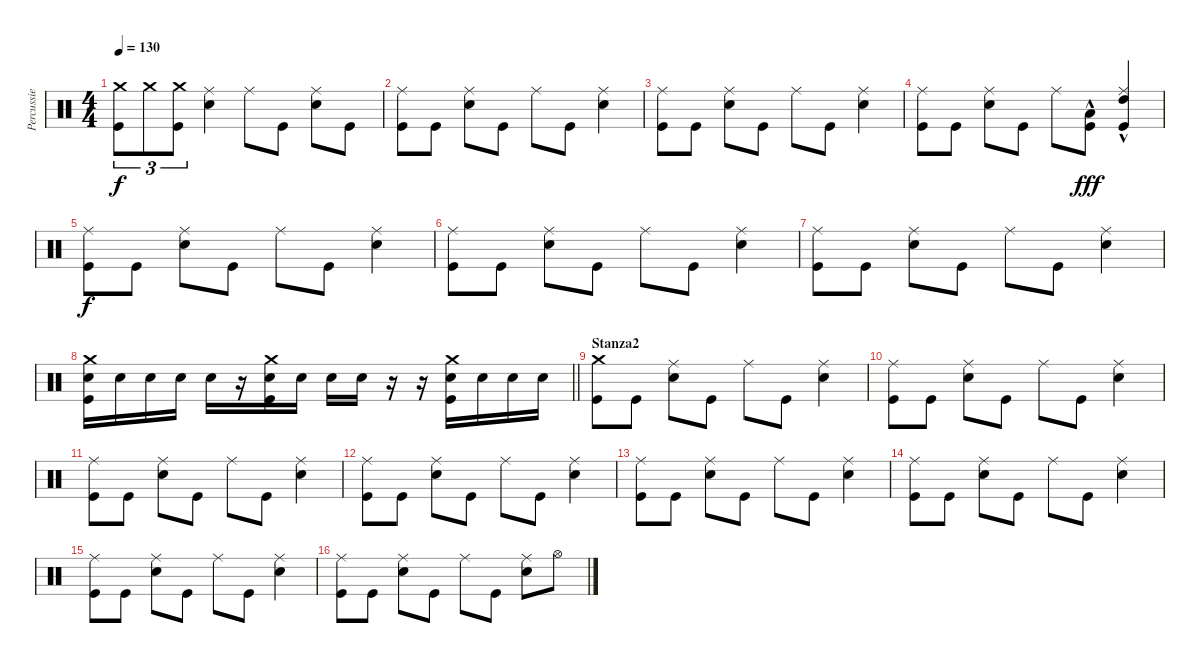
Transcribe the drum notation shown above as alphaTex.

\track ("Percussie" "Percussie") {instrument percussion}
\staff {score}
\articulation defaults
\ts (4 4)
\section ("" "")
\tempo 130
\clef neutral
\ks c
("Crash medium (hit)" "Kick (hit)").8{tu (3 2) dy f} "Crash medium (hit)".8{tu (3 2)} ("Crash medium (hit)" "Kick (hit)").8{tu (3 2)} ("Ride (middle)" "Snare (hit) 2").4 "Ride (middle)".8 "Kick (hit)".8 ("Ride (middle)" "Snare (hit) 2").8 "Kick (hit)".8 |
("Ride (middle)" "Kick (hit)").8 "Kick (hit)".8 ("Ride (middle)" "Snare (hit) 2").8 "Kick (hit)".8 "Ride (middle)".8 "Kick (hit)".8 ("Ride (middle)" "Snare (hit) 2").4 |
("Ride (middle)" "Kick (hit)").8 "Kick (hit)".8 ("Ride (middle)" "Snare (hit) 2").8 "Kick (hit)".8 "Ride (middle)".8 "Kick (hit)".8 ("Ride (middle)" "Snare (hit) 2").4 |
("Ride (middle)" "Kick (hit)").8 "Kick (hit)".8 ("Ride (middle)" "Snare (hit) 2").8 "Kick (hit)".8 "Ride (middle)".8 ("Low Tom (hit)"{hac} "Kick (hit)"{hac}).8{dy fff} ("High Tom (hit)"{hac} "Ride (middle)" "Kick (hit)"{hac}).4 |
("Ride (middle)" "Kick (hit)").8{dy f} "Kick (hit)".8 ("Ride (middle)" "Snare (hit) 2").8 "Kick (hit)".8 "Ride (middle)".8 "Kick (hit)".8 ("Ride (middle)" "Snare (hit) 2").4 |
("Ride (middle)" "Kick (hit)").8 "Kick (hit)".8 ("Ride (middle)" "Snare (hit) 2").8 "Kick (hit)".8 "Ride (middle)".8 "Kick (hit)".8 ("Ride (middle)" "Snare (hit) 2").4 |
("Ride (middle)" "Kick (hit)").8 "Kick (hit)".8 ("Ride (middle)" "Snare (hit) 2").8 "Kick (hit)".8 "Ride (middle)".8 "Kick (hit)".8 ("Ride (middle)" "Snare (hit) 2").4 |
\barLineRight lightlight
("Crash medium (hit)" "Snare (hit) 2" "Kick (hit)").16 "Snare (hit) 2".16 "Snare (hit) 2".16 "Snare (hit) 2".16 "Snare (hit) 2".16 r.16 ("Crash medium (hit)" "Snare (hit) 2" "Kick (hit)").16 "Snare (hit) 2".16 "Snare (hit) 2".16 "Snare (hit) 2".16 r.16 r.16 ("Crash medium (hit)" "Snare (hit) 2" "Kick (hit)").16 "Snare (hit) 2".16 "Snare (hit) 2".16 "Snare (hit) 2".16 |
\section ("" "Stanza2")
("Crash medium (hit)" "Kick (hit)").8 "Kick (hit)".8 ("Ride (middle)" "Snare (hit) 2").8 "Kick (hit)".8 "Ride (middle)".8 "Kick (hit)".8 ("Ride (middle)" "Snare (hit) 2").4 |
("Ride (middle)" "Kick (hit)").8 "Kick (hit)".8 ("Ride (middle)" "Snare (hit) 2").8 "Kick (hit)".8 "Ride (middle)".8 "Kick (hit)".8 ("Ride (middle)" "Snare (hit) 2").4 |
("Ride (middle)" "Kick (hit)").8 "Kick (hit)".8 ("Ride (middle)" "Snare (hit) 2").8 "Kick (hit)".8 "Ride (middle)".8 "Kick (hit)".8 ("Ride (middle)" "Snare (hit) 2").4 |
("Ride (middle)" "Kick (hit)").8 "Kick (hit)".8 ("Ride (middle)" "Snare (hit) 2").8 "Kick (hit)".8 "Ride (middle)".8 "Kick (hit)".8 ("Ride (middle)" "Snare (hit) 2").4 |
("Ride (middle)" "Kick (hit)").8 "Kick (hit)".8 ("Ride (middle)" "Snare (hit) 2").8 "Kick (hit)".8 "Ride (middle)".8 "Kick (hit)".8 ("Ride (middle)" "Snare (hit) 2").4 |
("Ride (middle)" "Kick (hit)").8 "Kick (hit)".8 ("Ride (middle)" "Snare (hit) 2").8 "Kick (hit)".8 "Ride (middle)".8 "Kick (hit)".8 ("Ride (middle)" "Snare (hit) 2").4 |
("Ride (middle)" "Kick (hit)").8 "Kick (hit)".8 ("Ride (middle)" "Snare (hit) 2").8 "Kick (hit)".8 "Ride (middle)".8 "Kick (hit)".8 ("Ride (middle)" "Snare (hit) 2").4 |
("Ride (middle)" "Kick (hit)").8 "Kick (hit)".8 ("Ride (middle)" "Snare (hit) 2").8 "Kick (hit)".8 "Ride (middle)".8 "Kick (hit)".8 ("Ride (middle)" "Snare (hit) 2").8 "Hi-Hat (open)".8
